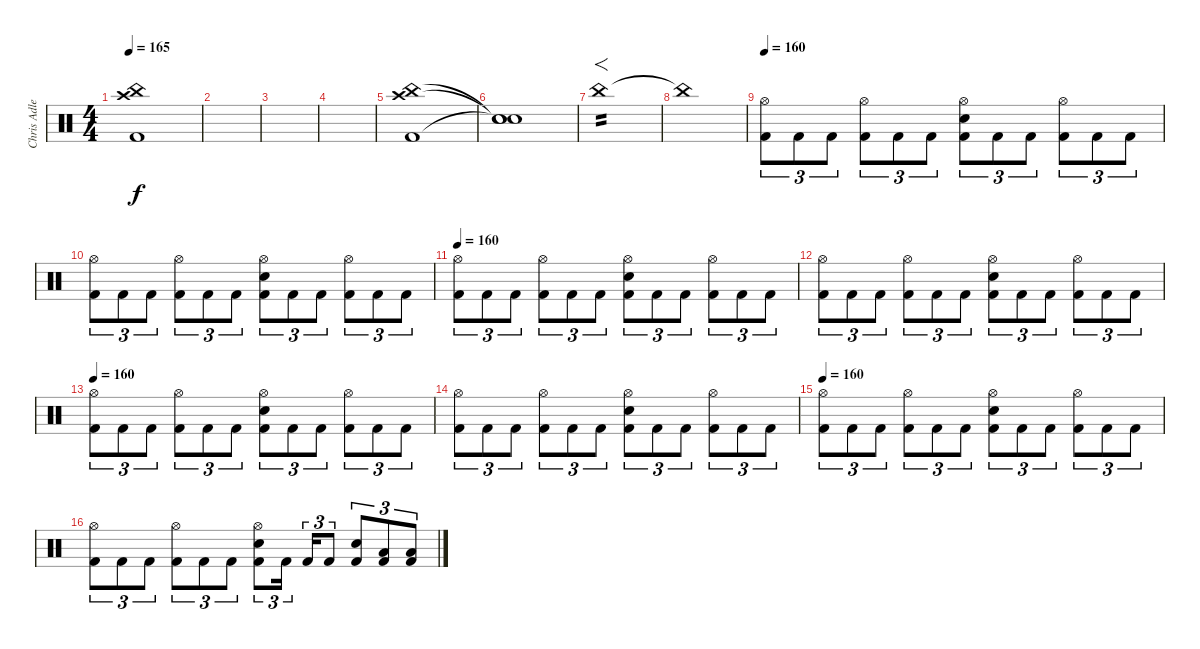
\track ("Chris Adler" "Chris Adle") {instrument percussion}
\staff {score}
\articulation defaults
\ts (4 4)
\tempo 165
\clef neutral
\ks c
("China (hit)" "Crash high (hit)" "Kick (hit) 2").1{dy f} |
|
|
|
("Crash high (hit)" "China (hit)" "Kick (hit) 2").1 |
("Snare (hit)"{t} "Snare (hit)"{t} "Snare (hit)"{t}).1 |
"China (hit)".1{f tp 2} |
"China (hit)"{t}.1 |
\tempo 160
("Hi-Hat (open)" "Kick (hit) 2").8{tu (3 2)} "Kick (hit) 2".8{tu (3 2)} "Kick (hit) 2".8{tu (3 2)} ("Hi-Hat (open)" "Kick (hit) 2").8{tu (3 2)} "Kick (hit) 2".8{tu (3 2)} "Kick (hit) 2".8{tu (3 2)} ("Hi-Hat (open)" "Snare (hit) 2" "Kick (hit) 2").8{tu (3 2)} "Kick (hit) 2".8{tu (3 2)} "Kick (hit) 2".8{tu (3 2)} ("Hi-Hat (open)" "Kick (hit) 2").8{tu (3 2)} "Kick (hit) 2".8{tu (3 2)} "Kick (hit) 2".8{tu (3 2)} |
("Hi-Hat (open)" "Kick (hit) 2").8{tu (3 2)} "Kick (hit) 2".8{tu (3 2)} "Kick (hit) 2".8{tu (3 2)} ("Hi-Hat (open)" "Kick (hit) 2").8{tu (3 2)} "Kick (hit) 2".8{tu (3 2)} "Kick (hit) 2".8{tu (3 2)} ("Hi-Hat (open)" "Snare (hit) 2" "Kick (hit) 2").8{tu (3 2)} "Kick (hit) 2".8{tu (3 2)} "Kick (hit) 2".8{tu (3 2)} ("Hi-Hat (open)" "Kick (hit) 2").8{tu (3 2)} "Kick (hit) 2".8{tu (3 2)} "Kick (hit) 2".8{tu (3 2)} |
\tempo 160
("Hi-Hat (open)" "Kick (hit) 2").8{tu (3 2)} "Kick (hit) 2".8{tu (3 2)} "Kick (hit) 2".8{tu (3 2)} ("Hi-Hat (open)" "Kick (hit) 2").8{tu (3 2)} "Kick (hit) 2".8{tu (3 2)} "Kick (hit) 2".8{tu (3 2)} ("Hi-Hat (open)" "Snare (hit) 2" "Kick (hit) 2").8{tu (3 2)} "Kick (hit) 2".8{tu (3 2)} "Kick (hit) 2".8{tu (3 2)} ("Hi-Hat (open)" "Kick (hit) 2").8{tu (3 2)} "Kick (hit) 2".8{tu (3 2)} "Kick (hit) 2".8{tu (3 2)} |
("Hi-Hat (open)" "Kick (hit) 2").8{tu (3 2)} "Kick (hit) 2".8{tu (3 2)} "Kick (hit) 2".8{tu (3 2)} ("Hi-Hat (open)" "Kick (hit) 2").8{tu (3 2)} "Kick (hit) 2".8{tu (3 2)} "Kick (hit) 2".8{tu (3 2)} ("Hi-Hat (open)" "Snare (hit) 2" "Kick (hit) 2").8{tu (3 2)} "Kick (hit) 2".8{tu (3 2)} "Kick (hit) 2".8{tu (3 2)} ("Hi-Hat (open)" "Kick (hit) 2").8{tu (3 2)} "Kick (hit) 2".8{tu (3 2)} "Kick (hit) 2".8{tu (3 2)} |
\tempo 160
("Hi-Hat (open)" "Kick (hit) 2").8{tu (3 2)} "Kick (hit) 2".8{tu (3 2)} "Kick (hit) 2".8{tu (3 2)} ("Hi-Hat (open)" "Kick (hit) 2").8{tu (3 2)} "Kick (hit) 2".8{tu (3 2)} "Kick (hit) 2".8{tu (3 2)} ("Hi-Hat (open)" "Snare (hit) 2" "Kick (hit) 2").8{tu (3 2)} "Kick (hit) 2".8{tu (3 2)} "Kick (hit) 2".8{tu (3 2)} ("Hi-Hat (open)" "Kick (hit) 2").8{tu (3 2)} "Kick (hit) 2".8{tu (3 2)} "Kick (hit) 2".8{tu (3 2)} |
("Hi-Hat (open)" "Kick (hit) 2").8{tu (3 2)} "Kick (hit) 2".8{tu (3 2)} "Kick (hit) 2".8{tu (3 2)} ("Hi-Hat (open)" "Kick (hit) 2").8{tu (3 2)} "Kick (hit) 2".8{tu (3 2)} "Kick (hit) 2".8{tu (3 2)} ("Hi-Hat (open)" "Snare (hit) 2" "Kick (hit) 2").8{tu (3 2)} "Kick (hit) 2".8{tu (3 2)} "Kick (hit) 2".8{tu (3 2)} ("Hi-Hat (open)" "Kick (hit) 2").8{tu (3 2)} "Kick (hit) 2".8{tu (3 2)} "Kick (hit) 2".8{tu (3 2)} |
\tempo 160
("Hi-Hat (open)" "Kick (hit) 2").8{tu (3 2)} "Kick (hit) 2".8{tu (3 2)} "Kick (hit) 2".8{tu (3 2)} ("Hi-Hat (open)" "Kick (hit) 2").8{tu (3 2)} "Kick (hit) 2".8{tu (3 2)} "Kick (hit) 2".8{tu (3 2)} ("Hi-Hat (open)" "Snare (hit) 2" "Kick (hit) 2").8{tu (3 2)} "Kick (hit) 2".8{tu (3 2)} "Kick (hit) 2".8{tu (3 2)} ("Hi-Hat (open)" "Kick (hit) 2").8{tu (3 2)} "Kick (hit) 2".8{tu (3 2)} "Kick (hit) 2".8{tu (3 2)} |
("Hi-Hat (open)" "Kick (hit) 2").8{tu (3 2)} "Kick (hit) 2".8{tu (3 2)} "Kick (hit) 2".8{tu (3 2)} ("Hi-Hat (open)" "Kick (hit) 2").8{tu (3 2)} "Kick (hit) 2".8{tu (3 2)} "Kick (hit) 2".8{tu (3 2)} ("Hi-Hat (open)" "Snare (hit) 2" "Kick (hit) 2").8{tu (3 2)} "Kick (hit) 2".16{tu (3 2) beam splitsecondary} "Kick (hit) 2".16{tu (3 2)} "Kick (hit) 2".8{tu (3 2)} ("Snare (hit) 2" "Kick (hit) 2").8{tu (3 2)} ("Low Tom (hit)" "Kick (hit) 2").8{tu (3 2)} ("Low Floor Tom (hit)" "Kick (hit) 2").8{tu (3 2)}
